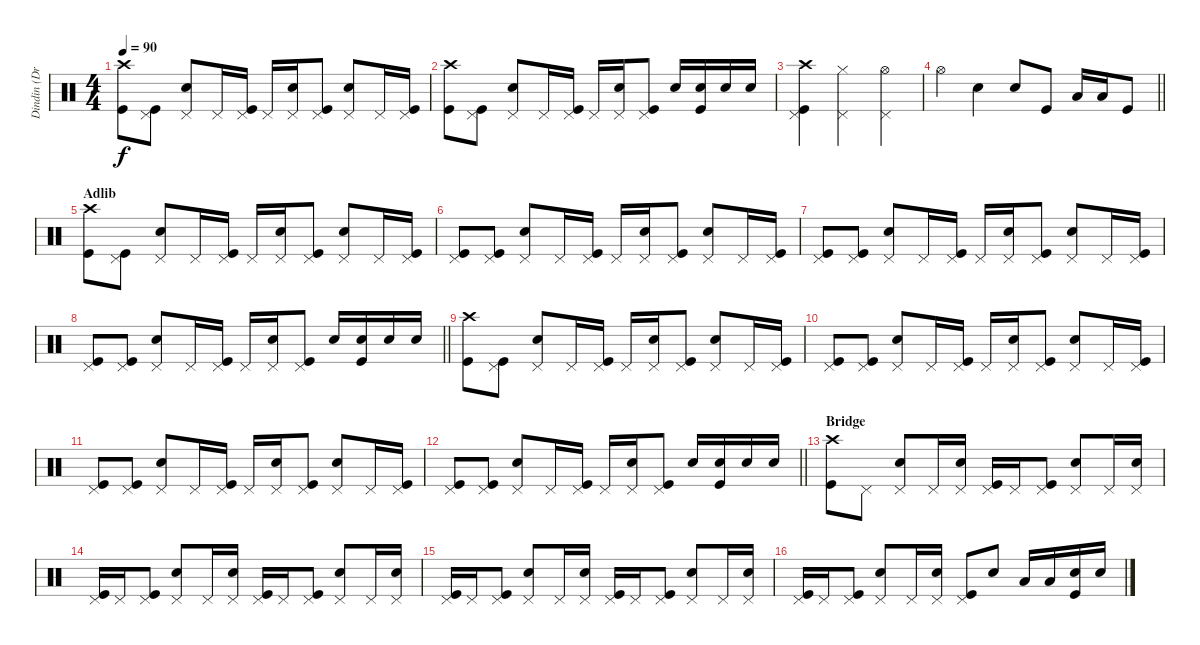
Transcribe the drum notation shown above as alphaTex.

\track ("Dindin (Drums)" "Dindin (Dr") {instrument percussion}
\staff {score}
\articulation defaults
\ts (4 4)
\tempo 90
\clef neutral
\ks c
("Crash high (hit)" "Kick (hit)").8{dy f} ("Pedal Hi-Hat (hit)" "Kick (hit)").8 ("Pedal Hi-Hat (hit)" "Snare (hit) 2").8 "Pedal Hi-Hat (hit)".16 ("Pedal Hi-Hat (hit)" "Kick (hit)").16 "Pedal Hi-Hat (hit)".16 ("Pedal Hi-Hat (hit)" "Snare (hit) 2").16 ("Pedal Hi-Hat (hit)" "Kick (hit)").8 ("Pedal Hi-Hat (hit)" "Snare (hit) 2").8 "Pedal Hi-Hat (hit)".16 ("Pedal Hi-Hat (hit)" "Kick (hit)").16 |
("Crash high (hit)" "Kick (hit)").8 ("Pedal Hi-Hat (hit)" "Kick (hit)").8 ("Pedal Hi-Hat (hit)" "Snare (hit) 2").8 "Pedal Hi-Hat (hit)".16 ("Pedal Hi-Hat (hit)" "Kick (hit)").16 "Pedal Hi-Hat (hit)".16 ("Pedal Hi-Hat (hit)" "Snare (hit) 2").16 ("Pedal Hi-Hat (hit)" "Kick (hit)").8 "Snare (hit) 2".16 ("Snare (hit) 2" "Kick (hit)").16 "Snare (hit) 2".16 "Snare (hit) 2".16 |
("Crash high (hit)" "Pedal Hi-Hat (hit)" "Kick (hit)").4 ("Pedal Hi-Hat (hit)" "Hi-Hat (closed)").2 ("Hi-Hat (open)" "Pedal Hi-Hat (hit)").4 |
\barLineRight lightlight "Hi-Hat (open)".4 "Snare (hit) 2".4 "Snare (hit) 2".8 "Kick (hit)".8 "Low Tom (hit)".16 "Low Tom (hit)".16 "Kick (hit)".8
|
\section ("" "Adlib")
("Crash high (hit)" "Kick (hit)").8 ("Pedal Hi-Hat (hit)" "Kick (hit)").8 ("Pedal Hi-Hat (hit)" "Snare (hit) 2").8 "Pedal Hi-Hat (hit)".16 ("Pedal Hi-Hat (hit)" "Kick (hit)").16 "Pedal Hi-Hat (hit)".16 ("Pedal Hi-Hat (hit)" "Snare (hit) 2").16 ("Pedal Hi-Hat (hit)" "Kick (hit)").8 ("Pedal Hi-Hat (hit)" "Snare (hit) 2").8 "Pedal Hi-Hat (hit)".16 ("Pedal Hi-Hat (hit)" "Kick (hit)").16 |
("Pedal Hi-Hat (hit)" "Kick (hit)").8 ("Pedal Hi-Hat (hit)" "Kick (hit)").8 ("Pedal Hi-Hat (hit)" "Snare (hit) 2").8 "Pedal Hi-Hat (hit)".16 ("Pedal Hi-Hat (hit)" "Kick (hit)").16 "Pedal Hi-Hat (hit)".16 ("Pedal Hi-Hat (hit)" "Snare (hit) 2").16 ("Pedal Hi-Hat (hit)" "Kick (hit)").8 ("Pedal Hi-Hat (hit)" "Snare (hit) 2").8 "Pedal Hi-Hat (hit)".16 ("Pedal Hi-Hat (hit)" "Kick (hit)").16 |
("Pedal Hi-Hat (hit)" "Kick (hit)").8 ("Pedal Hi-Hat (hit)" "Kick (hit)").8 ("Pedal Hi-Hat (hit)" "Snare (hit) 2").8 "Pedal Hi-Hat (hit)".16 ("Pedal Hi-Hat (hit)" "Kick (hit)").16 "Pedal Hi-Hat (hit)".16 ("Pedal Hi-Hat (hit)" "Snare (hit) 2").16 ("Pedal Hi-Hat (hit)" "Kick (hit)").8 ("Pedal Hi-Hat (hit)" "Snare (hit) 2").8 "Pedal Hi-Hat (hit)".16 ("Pedal Hi-Hat (hit)" "Kick (hit)").16 |
\barLineRight lightlight
("Pedal Hi-Hat (hit)" "Kick (hit)").8 ("Pedal Hi-Hat (hit)" "Kick (hit)").8 ("Pedal Hi-Hat (hit)" "Snare (hit) 2").8 "Pedal Hi-Hat (hit)".16 ("Pedal Hi-Hat (hit)" "Kick (hit)").16 "Pedal Hi-Hat (hit)".16 ("Pedal Hi-Hat (hit)" "Snare (hit) 2").16 ("Pedal Hi-Hat (hit)" "Kick (hit)").8 "Snare (hit) 2".16 ("Snare (hit) 2" "Kick (hit)").16 "Snare (hit) 2".16 "Snare (hit) 2".16 |
("Crash high (hit)" "Kick (hit)").8 ("Pedal Hi-Hat (hit)" "Kick (hit)").8 ("Pedal Hi-Hat (hit)" "Snare (hit) 2").8 "Pedal Hi-Hat (hit)".16 ("Pedal Hi-Hat (hit)" "Kick (hit)").16 "Pedal Hi-Hat (hit)".16 ("Pedal Hi-Hat (hit)" "Snare (hit) 2").16 ("Pedal Hi-Hat (hit)" "Kick (hit)").8 ("Pedal Hi-Hat (hit)" "Snare (hit) 2").8 "Pedal Hi-Hat (hit)".16 ("Pedal Hi-Hat (hit)" "Kick (hit)").16 |
("Pedal Hi-Hat (hit)" "Kick (hit)").8 ("Pedal Hi-Hat (hit)" "Kick (hit)").8 ("Pedal Hi-Hat (hit)" "Snare (hit) 2").8 "Pedal Hi-Hat (hit)".16 ("Pedal Hi-Hat (hit)" "Kick (hit)").16 "Pedal Hi-Hat (hit)".16 ("Pedal Hi-Hat (hit)" "Snare (hit) 2").16 ("Pedal Hi-Hat (hit)" "Kick (hit)").8 ("Pedal Hi-Hat (hit)" "Snare (hit) 2").8 "Pedal Hi-Hat (hit)".16 ("Pedal Hi-Hat (hit)" "Kick (hit)").16 |
("Pedal Hi-Hat (hit)" "Kick (hit)").8 ("Pedal Hi-Hat (hit)" "Kick (hit)").8 ("Pedal Hi-Hat (hit)" "Snare (hit) 2").8 "Pedal Hi-Hat (hit)".16 ("Pedal Hi-Hat (hit)" "Kick (hit)").16 "Pedal Hi-Hat (hit)".16 ("Pedal Hi-Hat (hit)" "Snare (hit) 2").16 ("Pedal Hi-Hat (hit)" "Kick (hit)").8 ("Pedal Hi-Hat (hit)" "Snare (hit) 2").8 "Pedal Hi-Hat (hit)".16 ("Pedal Hi-Hat (hit)" "Kick (hit)").16 |
\barLineRight lightlight
("Pedal Hi-Hat (hit)" "Kick (hit)").8 ("Pedal Hi-Hat (hit)" "Kick (hit)").8 ("Pedal Hi-Hat (hit)" "Snare (hit) 2").8 "Pedal Hi-Hat (hit)".16 ("Pedal Hi-Hat (hit)" "Kick (hit)").16 "Pedal Hi-Hat (hit)".16 ("Pedal Hi-Hat (hit)" "Snare (hit) 2").16 ("Pedal Hi-Hat (hit)" "Kick (hit)").8 "Snare (hit) 2".16 ("Snare (hit) 2" "Kick (hit)").16 "Snare (hit) 2".16 "Snare (hit) 2".16 |
\section ("" "Bridge")
("Crash high (hit)" "Kick (hit)").8 "Pedal Hi-Hat (hit)".8 ("Pedal Hi-Hat (hit)" "Snare (hit) 2").8 "Pedal Hi-Hat (hit)".16 ("Pedal Hi-Hat (hit)" "Snare (hit) 2").16 ("Pedal Hi-Hat (hit)" "Kick (hit)").16 "Pedal Hi-Hat (hit)".16 ("Pedal Hi-Hat (hit)" "Kick (hit)").8 ("Pedal Hi-Hat (hit)" "Snare (hit) 2").8 "Pedal Hi-Hat (hit)".16 ("Pedal Hi-Hat (hit)" "Snare (hit) 2").16 |
("Pedal Hi-Hat (hit)" "Kick (hit)").16 "Pedal Hi-Hat (hit)".16 ("Pedal Hi-Hat (hit)" "Kick (hit)").8 ("Pedal Hi-Hat (hit)" "Snare (hit) 2").8 "Pedal Hi-Hat (hit)".16 ("Pedal Hi-Hat (hit)" "Snare (hit) 2").16 ("Pedal Hi-Hat (hit)" "Kick (hit)").16 "Pedal Hi-Hat (hit)".16 ("Pedal Hi-Hat (hit)" "Kick (hit)").8 ("Pedal Hi-Hat (hit)" "Snare (hit) 2").8 "Pedal Hi-Hat (hit)".16 ("Pedal Hi-Hat (hit)" "Snare (hit) 2").16 |
("Pedal Hi-Hat (hit)" "Kick (hit)").16 "Pedal Hi-Hat (hit)".16 ("Pedal Hi-Hat (hit)" "Kick (hit)").8 ("Pedal Hi-Hat (hit)" "Snare (hit) 2").8 "Pedal Hi-Hat (hit)".16 ("Pedal Hi-Hat (hit)" "Snare (hit) 2").16 ("Pedal Hi-Hat (hit)" "Kick (hit)").16 "Pedal Hi-Hat (hit)".16 ("Pedal Hi-Hat (hit)" "Kick (hit)").8 ("Pedal Hi-Hat (hit)" "Snare (hit) 2").8 "Pedal Hi-Hat (hit)".16 ("Pedal Hi-Hat (hit)" "Snare (hit) 2").16 |
("Pedal Hi-Hat (hit)" "Kick (hit)").16 "Pedal Hi-Hat (hit)".16 ("Pedal Hi-Hat (hit)" "Kick (hit)").8 ("Pedal Hi-Hat (hit)" "Snare (hit) 2").8 "Pedal Hi-Hat (hit)".16 ("Pedal Hi-Hat (hit)" "Snare (hit) 2").16 ("Pedal Hi-Hat (hit)" "Kick (hit)").8 "Snare (hit) 2".8 "Low Tom (hit)".16 "Low Tom (hit)".16 ("Snare (hit) 2" "Kick (hit)").16 "Snare (hit) 2".16
